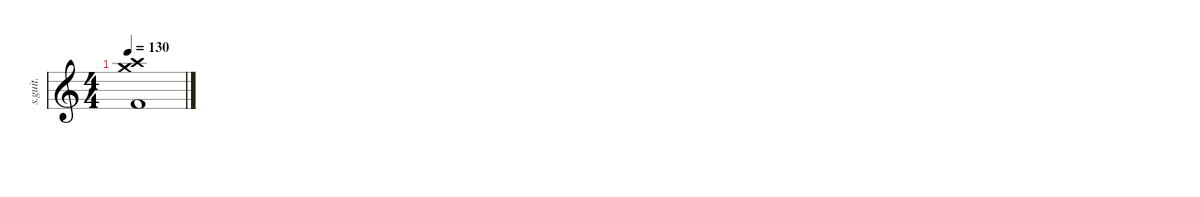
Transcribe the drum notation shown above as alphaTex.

\defaultSystemsLayout 4
\hideDynamics
\bracketExtendMode nobrackets
\track ("Rowntree & Coxon - Drums" "s.guit.") {instrument percussion}
\staff {score}
\articulation defaults
\ts (4 4)
\tempo 130
\clef g2
\ks c
("Crash high (hit)" "Crash medium (hit)" "Kick (hit) 2").1{lyrics (0 "") lyrics (1 "") lyrics (2 "") lyrics (3 "") lyrics (4 "") dy f}
